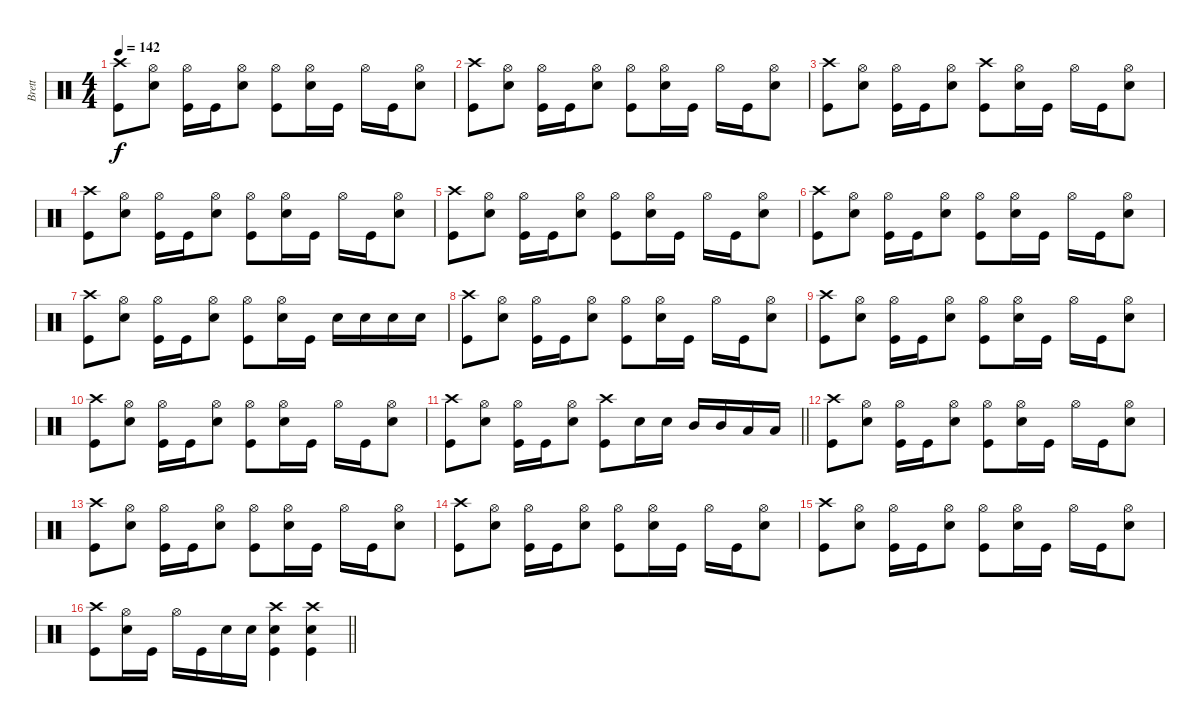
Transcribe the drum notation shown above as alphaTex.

\track ("Brett" "Brett") {instrument percussion}
\staff {score}
\articulation defaults
\ts (4 4)
\tempo 142
\clef neutral
\ks c
("Crash high (hit)" "Kick (hit)").8{dy f} ("Hi-Hat (open)" "Electric Snare (hit)").8 ("Hi-Hat (open)" "Kick (hit)").16 "Kick (hit)".16 ("Hi-Hat (open)" "Electric Snare (hit)").8 ("Hi-Hat (open)" "Kick (hit)").8 ("Hi-Hat (open)" "Electric Snare (hit)").16 "Kick (hit)".16 "Hi-Hat (open)".16 "Kick (hit)".16 ("Hi-Hat (open)" "Electric Snare (hit)").8 |
("Crash high (hit)" "Kick (hit)").8 ("Hi-Hat (open)" "Electric Snare (hit)").8 ("Hi-Hat (open)" "Kick (hit)").16 "Kick (hit)".16 ("Hi-Hat (open)" "Electric Snare (hit)").8 ("Hi-Hat (open)" "Kick (hit)").8 ("Hi-Hat (open)" "Electric Snare (hit)").16 "Kick (hit)".16 "Hi-Hat (open)".16 "Kick (hit)".16 ("Hi-Hat (open)" "Electric Snare (hit)").8 |
("Crash high (hit)" "Kick (hit)").8 ("Hi-Hat (open)" "Electric Snare (hit)").8 ("Hi-Hat (open)" "Kick (hit)").16 "Kick (hit)".16 ("Hi-Hat (open)" "Electric Snare (hit)").8 ("Crash high (hit)" "Kick (hit)").8 ("Hi-Hat (open)" "Electric Snare (hit)").16 "Kick (hit)".16 "Hi-Hat (open)".16 "Kick (hit)".16 ("Hi-Hat (open)" "Electric Snare (hit)").8 |
("Crash high (hit)" "Kick (hit)").8 ("Hi-Hat (open)" "Electric Snare (hit)").8 ("Hi-Hat (open)" "Kick (hit)").16 "Kick (hit)".16 ("Hi-Hat (open)" "Electric Snare (hit)").8 ("Hi-Hat (open)" "Kick (hit)").8 ("Hi-Hat (open)" "Electric Snare (hit)").16 "Kick (hit)".16 "Hi-Hat (open)".16 "Kick (hit)".16 ("Hi-Hat (open)" "Electric Snare (hit)").8 |
("Crash high (hit)" "Kick (hit)").8 ("Hi-Hat (open)" "Electric Snare (hit)").8 ("Hi-Hat (open)" "Kick (hit)").16 "Kick (hit)".16 ("Hi-Hat (open)" "Electric Snare (hit)").8 ("Hi-Hat (open)" "Kick (hit)").8 ("Hi-Hat (open)" "Electric Snare (hit)").16 "Kick (hit)".16 "Hi-Hat (open)".16 "Kick (hit)".16 ("Hi-Hat (open)" "Electric Snare (hit)").8 |
("Crash high (hit)" "Kick (hit)").8 ("Hi-Hat (open)" "Electric Snare (hit)").8 ("Hi-Hat (open)" "Kick (hit)").16 "Kick (hit)".16 ("Hi-Hat (open)" "Electric Snare (hit)").8 ("Hi-Hat (open)" "Kick (hit)").8 ("Hi-Hat (open)" "Electric Snare (hit)").16 "Kick (hit)".16 "Hi-Hat (open)".16 "Kick (hit)".16 ("Hi-Hat (open)" "Electric Snare (hit)").8 |
("Crash high (hit)" "Kick (hit)").8 ("Hi-Hat (open)" "Electric Snare (hit)").8 ("Hi-Hat (open)" "Kick (hit)").16 "Kick (hit)".16 ("Hi-Hat (open)" "Electric Snare (hit)").8 ("Hi-Hat (open)" "Kick (hit)").8 ("Hi-Hat (open)" "Electric Snare (hit)").16 "Kick (hit)".16 "Electric Snare (hit)".16 "Electric Snare (hit)".16 "Electric Snare (hit)".16 "Electric Snare (hit)".16 |
("Crash high (hit)" "Kick (hit)").8 ("Hi-Hat (open)" "Electric Snare (hit)").8 ("Hi-Hat (open)" "Kick (hit)").16 "Kick (hit)".16 ("Hi-Hat (open)" "Electric Snare (hit)").8 ("Hi-Hat (open)" "Kick (hit)").8 ("Hi-Hat (open)" "Electric Snare (hit)").16 "Kick (hit)".16 "Hi-Hat (open)".16 "Kick (hit)".16 ("Hi-Hat (open)" "Electric Snare (hit)").8 |
("Crash high (hit)" "Kick (hit)").8 ("Hi-Hat (open)" "Electric Snare (hit)").8 ("Hi-Hat (open)" "Kick (hit)").16 "Kick (hit)".16 ("Hi-Hat (open)" "Electric Snare (hit)").8 ("Hi-Hat (open)" "Kick (hit)").8 ("Hi-Hat (open)" "Electric Snare (hit)").16 "Kick (hit)".16 "Hi-Hat (open)".16 "Kick (hit)".16 ("Hi-Hat (open)" "Electric Snare (hit)").8 |
("Crash high (hit)" "Kick (hit)").8 ("Hi-Hat (open)" "Electric Snare (hit)").8 ("Hi-Hat (open)" "Kick (hit)").16 "Kick (hit)".16 ("Hi-Hat (open)" "Electric Snare (hit)").8 ("Hi-Hat (open)" "Kick (hit)").8 ("Hi-Hat (open)" "Electric Snare (hit)").16 "Kick (hit)".16 "Hi-Hat (open)".16 "Kick (hit)".16 ("Hi-Hat (open)" "Electric Snare (hit)").8 |
\barLineRight lightlight
("Crash high (hit)" "Kick (hit)").8 ("Hi-Hat (open)" "Electric Snare (hit)").8 ("Hi-Hat (open)" "Kick (hit)").16 "Kick (hit)".16 ("Hi-Hat (open)" "Electric Snare (hit)").8 ("Crash high (hit)" "Kick (hit)").8 "Electric Snare (hit)".16 "Electric Snare (hit)".16 "Mid Tom (hit)".16 "Mid Tom (hit)".16 "Low Tom (hit)".16 "Low Tom (hit)".16 |
("Crash high (hit)" "Kick (hit)").8 ("Hi-Hat (open)" "Electric Snare (hit)").8 ("Hi-Hat (open)" "Kick (hit)").16 "Kick (hit)".16 ("Hi-Hat (open)" "Electric Snare (hit)").8 ("Hi-Hat (open)" "Kick (hit)").8 ("Hi-Hat (open)" "Electric Snare (hit)").16 "Kick (hit)".16 "Hi-Hat (open)".16 "Kick (hit)".16 ("Hi-Hat (open)" "Electric Snare (hit)").8 |
("Crash high (hit)" "Kick (hit)").8 ("Hi-Hat (open)" "Electric Snare (hit)").8 ("Hi-Hat (open)" "Kick (hit)").16 "Kick (hit)".16 ("Hi-Hat (open)" "Electric Snare (hit)").8 ("Hi-Hat (open)" "Kick (hit)").8 ("Hi-Hat (open)" "Electric Snare (hit)").16 "Kick (hit)".16 "Hi-Hat (open)".16 "Kick (hit)".16 ("Hi-Hat (open)" "Electric Snare (hit)").8 |
("Crash high (hit)" "Kick (hit)").8 ("Hi-Hat (open)" "Electric Snare (hit)").8 ("Hi-Hat (open)" "Kick (hit)").16 "Kick (hit)".16 ("Hi-Hat (open)" "Electric Snare (hit)").8 ("Hi-Hat (open)" "Kick (hit)").8 ("Hi-Hat (open)" "Electric Snare (hit)").16 "Kick (hit)".16 "Hi-Hat (open)".16 "Kick (hit)".16 ("Hi-Hat (open)" "Electric Snare (hit)").8 |
("Crash high (hit)" "Kick (hit)").8 ("Hi-Hat (open)" "Electric Snare (hit)").8 ("Hi-Hat (open)" "Kick (hit)").16 "Kick (hit)".16 ("Hi-Hat (open)" "Electric Snare (hit)").8 ("Hi-Hat (open)" "Kick (hit)").8 ("Hi-Hat (open)" "Electric Snare (hit)").16 "Kick (hit)".16 "Hi-Hat (open)".16 "Kick (hit)".16 ("Hi-Hat (open)" "Electric Snare (hit)").8 |
\barLineRight lightlight
("Crash high (hit)" "Kick (hit)").8 ("Hi-Hat (open)" "Electric Snare (hit)").16 "Kick (hit)".16 "Hi-Hat (open)".16 "Kick (hit)".16 "Electric Snare (hit)".16 "Electric Snare (hit)".16 ("Crash high (hit)" "Electric Snare (hit)" "Kick (hit)").4 ("Crash high (hit)" "Electric Snare (hit)" "Kick (hit)").4
